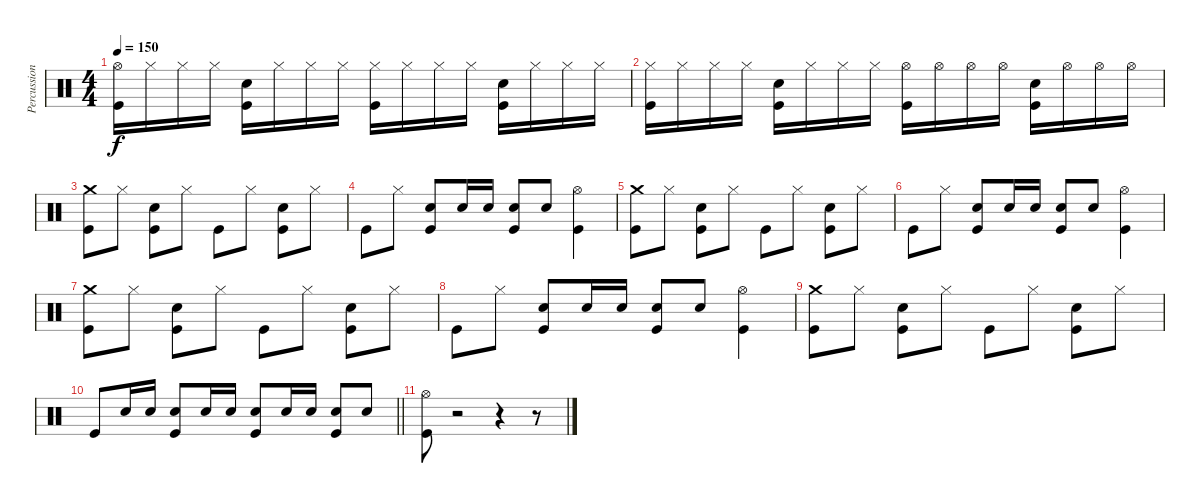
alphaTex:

\track ("Percussion" "Percussion") {instrument percussion}
\staff {score}
\articulation defaults
\ts (4 4)
\tempo 150
\clef neutral
\ks c
("Hi-Hat (open)" "Kick (hit)").16{dy f} "Hi-Hat (closed)".16 "Hi-Hat (closed)".16 "Hi-Hat (closed)".16 ("Snare (hit) 2" "Kick (hit)").16 "Hi-Hat (closed)".16 "Hi-Hat (closed)".16 "Hi-Hat (closed)".16 ("Hi-Hat (closed)" "Kick (hit)").16 "Hi-Hat (closed)".16 "Hi-Hat (closed)".16 "Hi-Hat (closed)".16 ("Snare (hit) 2" "Kick (hit)").16 "Hi-Hat (closed)".16 "Hi-Hat (closed)".16 "Hi-Hat (closed)".16 |
("Hi-Hat (closed)" "Kick (hit)").16 "Hi-Hat (closed)".16 "Hi-Hat (closed)".16 "Hi-Hat (closed)".16 ("Snare (hit) 2" "Kick (hit)").16 "Hi-Hat (closed)".16 "Hi-Hat (closed)".16 "Hi-Hat (closed)".16 ("Hi-Hat (open)" "Kick (hit)").16 "Hi-Hat (open)".16 "Hi-Hat (open)".16 "Hi-Hat (open)".16 ("Snare (hit) 2" "Kick (hit)").16 "Hi-Hat (open)".16 "Hi-Hat (open)".16 "Hi-Hat (open)".16 |
("Crash medium (hit)" "Kick (hit)").8 "Hi-Hat (closed)".8 ("Snare (hit) 2" "Kick (hit)").8 "Hi-Hat (closed)".8 "Kick (hit)".8 "Hi-Hat (closed)".8 ("Snare (hit) 2" "Kick (hit)").8 "Hi-Hat (closed)".8 |
"Kick (hit)".8 "Hi-Hat (closed)".8 ("Snare (hit) 2" "Kick (hit)").8 "Snare (hit) 2".16 "Snare (hit) 2".16 ("Snare (hit) 2" "Kick (hit)").8 "Snare (hit) 2".8 ("Hi-Hat (open)" "Kick (hit)").4 |
("Crash medium (hit)" "Kick (hit)").8 "Hi-Hat (closed)".8 ("Snare (hit) 2" "Kick (hit)").8 "Hi-Hat (closed)".8 "Kick (hit)".8 "Hi-Hat (closed)".8 ("Snare (hit) 2" "Kick (hit)").8 "Hi-Hat (closed)".8 |
"Kick (hit)".8 "Hi-Hat (closed)".8 ("Snare (hit) 2" "Kick (hit)").8 "Snare (hit) 2".16 "Snare (hit) 2".16 ("Snare (hit) 2" "Kick (hit)").8 "Snare (hit) 2".8 ("Hi-Hat (open)" "Kick (hit)").4 |
("Crash medium (hit)" "Kick (hit)").8 "Hi-Hat (closed)".8 ("Snare (hit) 2" "Kick (hit)").8 "Hi-Hat (closed)".8 "Kick (hit)".8 "Hi-Hat (closed)".8 ("Snare (hit) 2" "Kick (hit)").8 "Hi-Hat (closed)".8 |
"Kick (hit)".8 "Hi-Hat (closed)".8 ("Snare (hit) 2" "Kick (hit)").8 "Snare (hit) 2".16 "Snare (hit) 2".16 ("Snare (hit) 2" "Kick (hit)").8 "Snare (hit) 2".8 ("Hi-Hat (open)" "Kick (hit)").4 |
("Crash medium (hit)" "Kick (hit)").8 "Hi-Hat (closed)".8 ("Snare (hit) 2" "Kick (hit)").8 "Hi-Hat (closed)".8 "Kick (hit)".8 "Hi-Hat (closed)".8 ("Snare (hit) 2" "Kick (hit)").8 "Hi-Hat (closed)".8 |
\barLineRight lightlight "Kick (hit)".8 "Snare (hit) 2".16 "Snare (hit) 2".16
("Snare (hit) 2" "Kick (hit)").8 "Snare (hit) 2".16 "Snare (hit) 2".16 ("Snare (hit) 2" "Kick (hit)").8 "Snare (hit) 2".16 "Snare (hit) 2".16 ("Snare (hit) 2" "Kick (hit)").8 "Snare (hit) 2".8 |
("Hi-Hat (open)" "Kick (hit)").8 r.2 r.4 r.8
